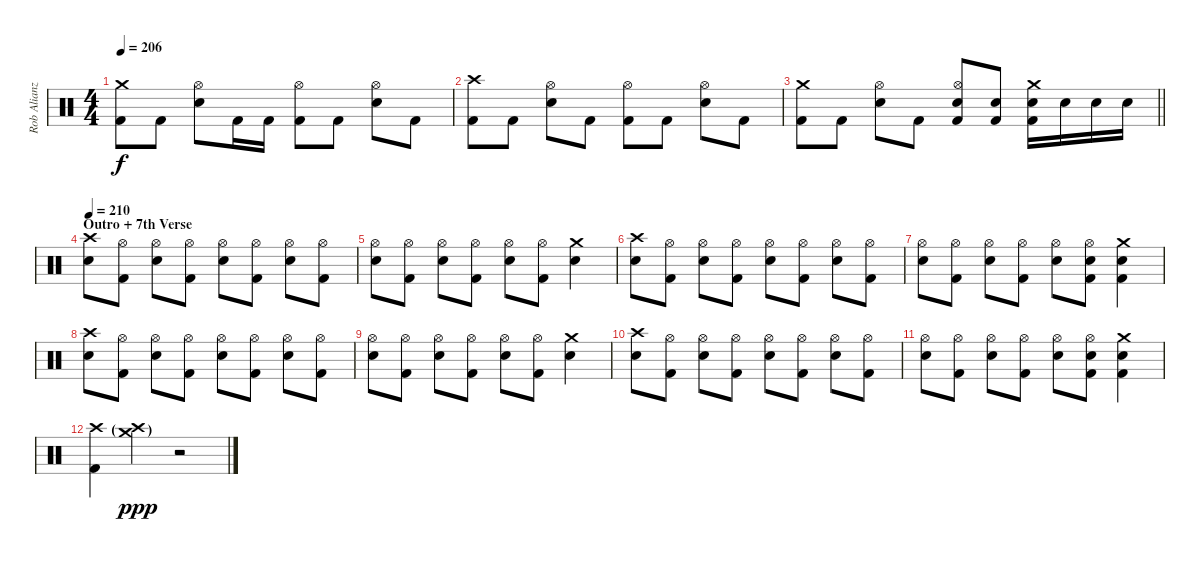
\track ("Rob Alianz" "Rob Alianz") {instrument percussion}
\staff {score}
\articulation defaults
\ts (4 4)
\tempo 206
\clef neutral
\ks c
("Crash medium (hit)" "Kick (hit) 2").8{dy f} "Kick (hit) 2".8 ("Hi-Hat (open)" "Electric Snare (hit)").8 "Kick (hit) 2".16 "Kick (hit) 2".16 ("Hi-Hat (open)" "Kick (hit) 2").8 "Kick (hit) 2".8 ("Hi-Hat (open)" "Electric Snare (hit)").8 "Kick (hit) 2".8 |
("Crash high (hit)" "Kick (hit) 2").8 "Kick (hit) 2".8 ("Hi-Hat (open)" "Electric Snare (hit)").8 "Kick (hit) 2".8 ("Hi-Hat (open)" "Kick (hit) 2").8 "Kick (hit) 2".8 ("Hi-Hat (open)" "Electric Snare (hit)").8 "Kick (hit) 2".8 |
\barLineRight lightlight
("Crash medium (hit)" "Kick (hit) 2").8 "Kick (hit) 2".8 ("Hi-Hat (open)" "Electric Snare (hit)").8 "Kick (hit) 2".8 ("Hi-Hat (open)" "Electric Snare (hit)" "Kick (hit) 2").8 ("Electric Snare (hit)" "Kick (hit) 2").8 ("Crash medium (hit)" "Electric Snare (hit)" "Kick (hit) 2").16 "Electric Snare (hit)".16 "Electric Snare (hit)".16 "Electric Snare (hit)".16 |
\section ("" "Outro + 7th Verse")
\tempo 210
("Crash high (hit)" "Electric Snare (hit)").8 ("Hi-Hat (open)" "Kick (hit) 2").8 ("Hi-Hat (open)" "Electric Snare (hit)").8 ("Hi-Hat (open)" "Kick (hit) 2").8 ("Hi-Hat (open)" "Electric Snare (hit)").8 ("Hi-Hat (open)" "Kick (hit) 2").8 ("Hi-Hat (open)" "Electric Snare (hit)").8 ("Hi-Hat (open)" "Kick (hit) 2").8 |
("Hi-Hat (open)" "Electric Snare (hit)").8 ("Hi-Hat (open)" "Kick (hit) 2").8 ("Hi-Hat (open)" "Electric Snare (hit)").8 ("Hi-Hat (open)" "Kick (hit) 2").8 ("Hi-Hat (open)" "Electric Snare (hit)").8 ("Hi-Hat (open)" "Kick (hit) 2").8 ("Crash medium (hit)" "Electric Snare (hit)").4 |
("Crash high (hit)" "Electric Snare (hit)").8 ("Hi-Hat (open)" "Kick (hit) 2").8 ("Hi-Hat (open)" "Electric Snare (hit)").8 ("Hi-Hat (open)" "Kick (hit) 2").8 ("Hi-Hat (open)" "Electric Snare (hit)").8 ("Hi-Hat (open)" "Kick (hit) 2").8 ("Hi-Hat (open)" "Electric Snare (hit)").8 ("Hi-Hat (open)" "Kick (hit) 2").8 |
("Hi-Hat (open)" "Electric Snare (hit)").8 ("Hi-Hat (open)" "Kick (hit) 2").8 ("Hi-Hat (open)" "Electric Snare (hit)").8 ("Hi-Hat (open)" "Kick (hit) 2").8 ("Hi-Hat (open)" "Electric Snare (hit)").8 ("Hi-Hat (open)" "Electric Snare (hit)" "Kick (hit) 2").8 ("Crash medium (hit)" "Electric Snare (hit)" "Kick (hit) 2").4 |
("Crash high (hit)" "Electric Snare (hit)").8 ("Hi-Hat (open)" "Kick (hit) 2").8 ("Hi-Hat (open)" "Electric Snare (hit)").8 ("Hi-Hat (open)" "Kick (hit) 2").8 ("Hi-Hat (open)" "Electric Snare (hit)").8 ("Hi-Hat (open)" "Kick (hit) 2").8 ("Hi-Hat (open)" "Electric Snare (hit)").8 ("Hi-Hat (open)" "Kick (hit) 2").8 |
("Hi-Hat (open)" "Electric Snare (hit)").8 ("Hi-Hat (open)" "Kick (hit) 2").8 ("Hi-Hat (open)" "Electric Snare (hit)").8 ("Hi-Hat (open)" "Kick (hit) 2").8 ("Hi-Hat (open)" "Electric Snare (hit)").8 ("Hi-Hat (open)" "Kick (hit) 2").8 ("Crash medium (hit)" "Electric Snare (hit)").4 |
("Crash high (hit)" "Electric Snare (hit)").8 ("Hi-Hat (open)" "Kick (hit) 2").8 ("Hi-Hat (open)" "Electric Snare (hit)").8 ("Hi-Hat (open)" "Kick (hit) 2").8 ("Hi-Hat (open)" "Electric Snare (hit)").8 ("Hi-Hat (open)" "Kick (hit) 2").8 ("Hi-Hat (open)" "Electric Snare (hit)").8 ("Hi-Hat (open)" "Kick (hit) 2").8 |
("Hi-Hat (open)" "Electric Snare (hit)").8 ("Hi-Hat (open)" "Kick (hit) 2").8 ("Hi-Hat (open)" "Electric Snare (hit)").8 ("Hi-Hat (open)" "Kick (hit) 2").8 ("Hi-Hat (open)" "Electric Snare (hit)").8 ("Hi-Hat (open)" "Electric Snare (hit)" "Kick (hit) 2").8 ("Crash medium (hit)" "Electric Snare (hit)" "Kick (hit) 2").4 |
("Crash high (hit)" "Kick (hit) 2").4 ("Crash medium (hit)"{g} "Crash high (hit)"{g}).4{dy ppp} r.2
